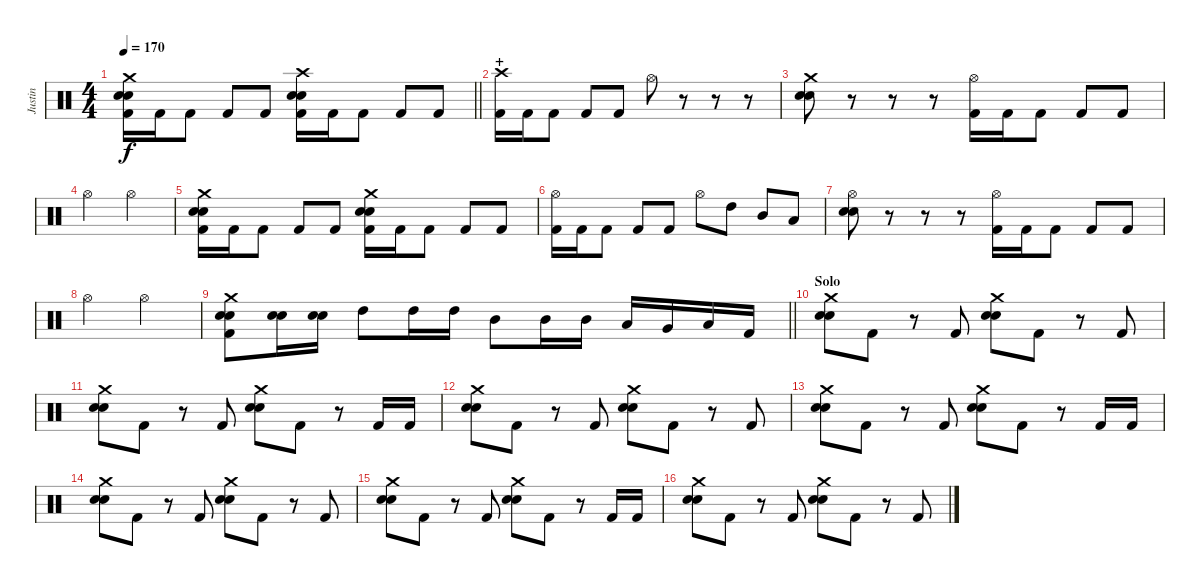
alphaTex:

\track ("Justin" "Justin") {instrument percussion}
\staff {score}
\articulation defaults
\ts (4 4)
\tempo 170
\clef neutral
\barLineRight lightlight
\ks c
("Crash medium (hit)" "Electric Snare (hit)" "Snare (hit) 2" "Kick (hit) 2").16{dy f} "Kick (hit) 2".16 "Kick (hit) 2".8 "Kick (hit) 2".8 "Kick (hit) 2".8 ("Crash high (hit)" "Electric Snare (hit)" "Snare (hit) 2" "Kick (hit) 2").16 "Kick (hit) 2".16 "Kick (hit) 2".8 "Kick (hit) 2".8 "Kick (hit) 2".8 |
\section ("" "+")
("Crash high (hit)" "Kick (hit) 2").16 "Kick (hit) 2".16 "Kick (hit) 2".8 "Kick (hit) 2".8 "Kick (hit) 2".8 "Hi-Hat (open)".8 r.8 r.8 r.8 |
("Crash medium (hit)" "Electric Snare (hit)" "Snare (hit) 2").8 r.8 r.8 r.8 ("Hi-Hat (open)" "Kick (hit) 2").16 "Kick (hit) 2".16 "Kick (hit) 2".8 "Kick (hit) 2".8 "Kick (hit) 2".8 |
"Hi-Hat (open)".2 "Hi-Hat (open)".2 |
("Crash medium (hit)" "Electric Snare (hit)" "Snare (hit) 2" "Kick (hit) 2").16 "Kick (hit) 2".16 "Kick (hit) 2".8 "Kick (hit) 2".8 "Kick (hit) 2".8 ("Crash medium (hit)" "Electric Snare (hit)" "Snare (hit) 2" "Kick (hit) 2").16 "Kick (hit) 2".16 "Kick (hit) 2".8 "Kick (hit) 2".8 "Kick (hit) 2".8 |
("Hi-Hat (open)" "Kick (hit) 2").16 "Kick (hit) 2".16 "Kick (hit) 2".8 "Kick (hit) 2".8 "Kick (hit) 2".8 "Hi-Hat (open)".8 "High Tom (hit)".8 "Mid Tom (hit)".8 "Low Tom (hit)".8 |
("Hi-Hat (open)" "Electric Snare (hit)" "Snare (hit) 2").8 r.8 r.8 r.8 ("Hi-Hat (open)" "Kick (hit) 2").16 "Kick (hit) 2".16 "Kick (hit) 2".8 "Kick (hit) 2".8 "Kick (hit) 2".8 |
"Hi-Hat (open)".2 "Hi-Hat (open)".2 |
\barLineRight lightlight
("Crash medium (hit)" "Electric Snare (hit)" "Snare (hit) 2" "Kick (hit) 2").8 ("Electric Snare (hit)" "Snare (hit) 2").16 ("Electric Snare (hit)" "Snare (hit) 2").16 "High Tom (hit)".8 "High Tom (hit)".16 "High Tom (hit)".16 "Mid Tom (hit)".8 "Mid Tom (hit)".16 "Mid Tom (hit)".16 "Low Tom (hit)".16 "Very Low Tom (hit)".16 "Low Floor Tom (hit)".16 "Kick (hit) 2".16 |
\section ("" "Solo")
("Crash medium (hit)" "Electric Snare (hit)" "Snare (hit) 2").8 "Kick (hit) 2".8 r.8 "Kick (hit) 2".8 ("Crash medium (hit)" "Electric Snare (hit)" "Snare (hit) 2").8 "Kick (hit) 2".8 r.8 "Kick (hit) 2".8 |
("Crash medium (hit)" "Electric Snare (hit)" "Snare (hit) 2").8 "Kick (hit) 2".8 r.8 "Kick (hit) 2".8 ("Crash medium (hit)" "Electric Snare (hit)" "Snare (hit) 2").8 "Kick (hit) 2".8 r.8 "Kick (hit) 2".16 "Kick (hit) 2".16 |
("Crash medium (hit)" "Electric Snare (hit)" "Snare (hit) 2").8 "Kick (hit) 2".8 r.8 "Kick (hit) 2".8 ("Crash medium (hit)" "Electric Snare (hit)" "Snare (hit) 2").8 "Kick (hit) 2".8 r.8 "Kick (hit) 2".8 |
("Crash medium (hit)" "Electric Snare (hit)" "Snare (hit) 2").8 "Kick (hit) 2".8 r.8 "Kick (hit) 2".8 ("Crash medium (hit)" "Electric Snare (hit)" "Snare (hit) 2").8 "Kick (hit) 2".8 r.8 "Kick (hit) 2".16 "Kick (hit) 2".16 |
("Crash medium (hit)" "Electric Snare (hit)" "Snare (hit) 2").8 "Kick (hit) 2".8 r.8 "Kick (hit) 2".8 ("Crash medium (hit)" "Electric Snare (hit)" "Snare (hit) 2").8 "Kick (hit) 2".8 r.8 "Kick (hit) 2".8 |
("Crash medium (hit)" "Electric Snare (hit)" "Snare (hit) 2").8 "Kick (hit) 2".8 r.8 "Kick (hit) 2".8 ("Crash medium (hit)" "Electric Snare (hit)" "Snare (hit) 2").8 "Kick (hit) 2".8 r.8 "Kick (hit) 2".16 "Kick (hit) 2".16 |
("Crash medium (hit)" "Electric Snare (hit)" "Snare (hit) 2").8 "Kick (hit) 2".8 r.8 "Kick (hit) 2".8 ("Crash medium (hit)" "Electric Snare (hit)" "Snare (hit) 2").8 "Kick (hit) 2".8 r.8 "Kick (hit) 2".8
